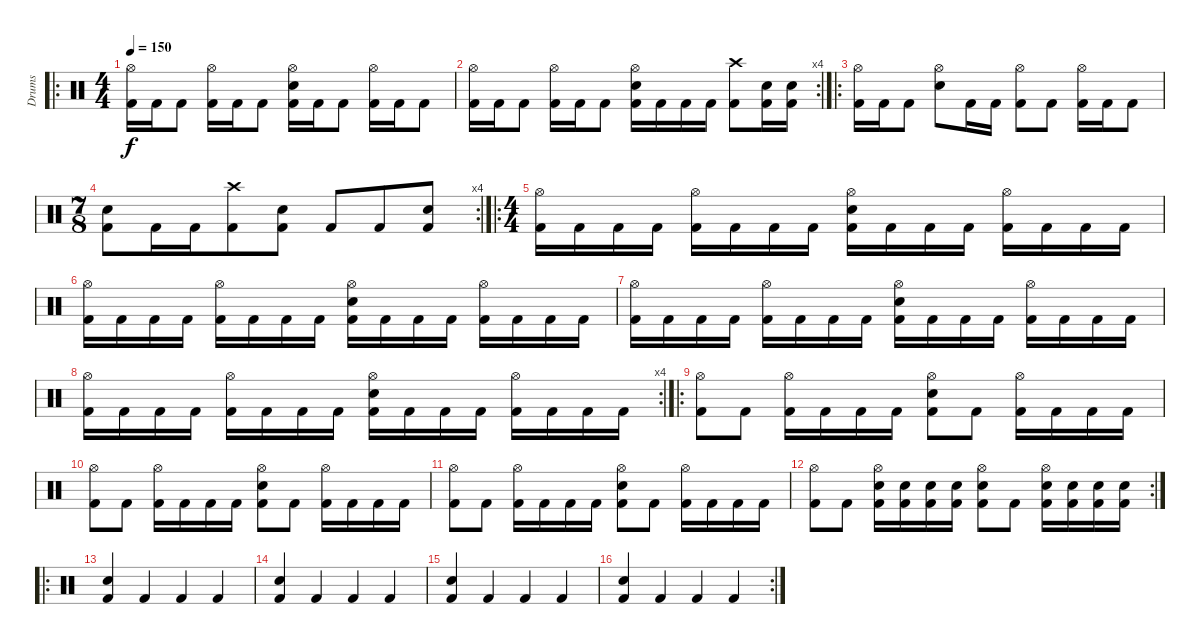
\track ("Drums" "Drums") {instrument percussion}
\staff {score}
\articulation defaults
\ro
\ts (4 4)
\tempo 150
\clef neutral
\ks c
("Hi-Hat (open)" "Kick (hit) 2").16{dy f} "Kick (hit) 2".16 "Kick (hit) 2".8 ("Hi-Hat (open)" "Kick (hit) 2").16 "Kick (hit) 2".16 "Kick (hit) 2".8 ("Hi-Hat (open)" "Snare (hit) 2" "Kick (hit) 2").16 "Kick (hit) 2".16 "Kick (hit) 2".8 ("Hi-Hat (open)" "Kick (hit) 2").16 "Kick (hit) 2".16 "Kick (hit) 2".8 |
\rc 4
("Hi-Hat (open)" "Kick (hit) 2").16 "Kick (hit) 2".16 "Kick (hit) 2".8 ("Hi-Hat (open)" "Kick (hit) 2").16 "Kick (hit) 2".16 "Kick (hit) 2".8 ("Hi-Hat (open)" "Snare (hit) 2" "Kick (hit) 2").16 "Kick (hit) 2".16 "Kick (hit) 2".16 "Kick (hit) 2".16 ("Crash high (hit)" "Kick (hit) 2").8 ("Snare (hit) 2" "Kick (hit) 2").16 ("Snare (hit) 2" "Kick (hit) 2").16 |
\ro
("Hi-Hat (open)" "Kick (hit) 2").16 "Kick (hit) 2".16 "Kick (hit) 2".8 ("Hi-Hat (open)" "Snare (hit) 2").8 "Kick (hit) 2".16 "Kick (hit) 2".16 ("Hi-Hat (open)" "Kick (hit) 2").8 "Kick (hit) 2".8 ("Hi-Hat (open)" "Kick (hit) 2").16 "Kick (hit) 2".16 "Kick (hit) 2".8 |
\rc 4
\ts (7 8)
("Snare (hit) 2" "Kick (hit) 2").8 "Kick (hit) 2".16 "Kick (hit) 2".16 ("Crash high (hit)" "Kick (hit) 2").8 ("Snare (hit) 2" "Kick (hit) 2").8 "Kick (hit) 2".8 "Kick (hit) 2".8 ("Snare (hit) 2" "Kick (hit) 2").8 |
\ro
\ts (4 4)
("Hi-Hat (open)" "Kick (hit) 2").16 "Kick (hit) 2".16 "Kick (hit) 2".16 "Kick (hit) 2".16 ("Hi-Hat (open)" "Kick (hit) 2").16 "Kick (hit) 2".16 "Kick (hit) 2".16 "Kick (hit) 2".16 ("Hi-Hat (open)" "Snare (hit) 2" "Kick (hit) 2").16 "Kick (hit) 2".16 "Kick (hit) 2".16 "Kick (hit) 2".16 ("Hi-Hat (open)" "Kick (hit) 2").16 "Kick (hit) 2".16 "Kick (hit) 2".16 "Kick (hit) 2".16 |
("Hi-Hat (open)" "Kick (hit) 2").16 "Kick (hit) 2".16 "Kick (hit) 2".16 "Kick (hit) 2".16 ("Hi-Hat (open)" "Kick (hit) 2").16 "Kick (hit) 2".16 "Kick (hit) 2".16 "Kick (hit) 2".16 ("Hi-Hat (open)" "Snare (hit) 2" "Kick (hit) 2").16 "Kick (hit) 2".16 "Kick (hit) 2".16 "Kick (hit) 2".16 ("Hi-Hat (open)" "Kick (hit) 2").16 "Kick (hit) 2".16 "Kick (hit) 2".16 "Kick (hit) 2".16 |
("Hi-Hat (open)" "Kick (hit) 2").16 "Kick (hit) 2".16 "Kick (hit) 2".16 "Kick (hit) 2".16 ("Hi-Hat (open)" "Kick (hit) 2").16 "Kick (hit) 2".16 "Kick (hit) 2".16 "Kick (hit) 2".16 ("Hi-Hat (open)" "Snare (hit) 2" "Kick (hit) 2").16 "Kick (hit) 2".16 "Kick (hit) 2".16 "Kick (hit) 2".16 ("Hi-Hat (open)" "Kick (hit) 2").16 "Kick (hit) 2".16 "Kick (hit) 2".16 "Kick (hit) 2".16 |
\rc 4
("Hi-Hat (open)" "Kick (hit) 2").16 "Kick (hit) 2".16 "Kick (hit) 2".16 "Kick (hit) 2".16 ("Hi-Hat (open)" "Kick (hit) 2").16 "Kick (hit) 2".16 "Kick (hit) 2".16 "Kick (hit) 2".16 ("Hi-Hat (open)" "Snare (hit) 2" "Kick (hit) 2").16 "Kick (hit) 2".16 "Kick (hit) 2".16 "Kick (hit) 2".16 ("Hi-Hat (open)" "Kick (hit) 2").16 "Kick (hit) 2".16 "Kick (hit) 2".16 "Kick (hit) 2".16 |
\ro
("Hi-Hat (open)" "Kick (hit) 2").8 "Kick (hit) 2".8 ("Hi-Hat (open)" "Kick (hit) 2").16 "Kick (hit) 2".16 "Kick (hit) 2".16 "Kick (hit) 2".16 ("Hi-Hat (open)" "Snare (hit) 2" "Kick (hit) 2").8 "Kick (hit) 2".8 ("Hi-Hat (open)" "Kick (hit) 2").16 "Kick (hit) 2".16 "Kick (hit) 2".16 "Kick (hit) 2".16 |
("Hi-Hat (open)" "Kick (hit) 2").8 "Kick (hit) 2".8 ("Hi-Hat (open)" "Kick (hit) 2").16 "Kick (hit) 2".16 "Kick (hit) 2".16 "Kick (hit) 2".16 ("Hi-Hat (open)" "Snare (hit) 2" "Kick (hit) 2").8 "Kick (hit) 2".8 ("Hi-Hat (open)" "Kick (hit) 2").16 "Kick (hit) 2".16 "Kick (hit) 2".16 "Kick (hit) 2".16 |
("Hi-Hat (open)" "Kick (hit) 2").8 "Kick (hit) 2".8 ("Hi-Hat (open)" "Kick (hit) 2").16 "Kick (hit) 2".16 "Kick (hit) 2".16 "Kick (hit) 2".16 ("Hi-Hat (open)" "Snare (hit) 2" "Kick (hit) 2").8 "Kick (hit) 2".8 ("Hi-Hat (open)" "Kick (hit) 2").16 "Kick (hit) 2".16 "Kick (hit) 2".16 "Kick (hit) 2".16 |
\rc 2
("Hi-Hat (open)" "Kick (hit) 2").8 "Kick (hit) 2".8 ("Hi-Hat (open)" "Snare (hit) 2" "Kick (hit) 2").16 ("Snare (hit) 2" "Kick (hit) 2").16 ("Snare (hit) 2" "Kick (hit) 2").16 ("Snare (hit) 2" "Kick (hit) 2").16 ("Hi-Hat (open)" "Snare (hit) 2" "Kick (hit) 2").8 "Kick (hit) 2".8 ("Hi-Hat (open)" "Snare (hit) 2" "Kick (hit) 2").16 ("Snare (hit) 2" "Kick (hit) 2").16 ("Snare (hit) 2" "Kick (hit) 2").16 ("Snare (hit) 2" "Kick (hit) 2").16 |
\ro
("Snare (hit) 2" "Kick (hit) 2").4 "Kick (hit) 2".4 "Kick (hit) 2".4 "Kick (hit) 2".4 |
("Snare (hit) 2" "Kick (hit) 2").4 "Kick (hit) 2".4 "Kick (hit) 2".4 "Kick (hit) 2".4 |
("Snare (hit) 2" "Kick (hit) 2").4 "Kick (hit) 2".4 "Kick (hit) 2".4 "Kick (hit) 2".4 |
\rc 2
("Snare (hit) 2" "Kick (hit) 2").4 "Kick (hit) 2".4 "Kick (hit) 2".4 "Kick (hit) 2".4
